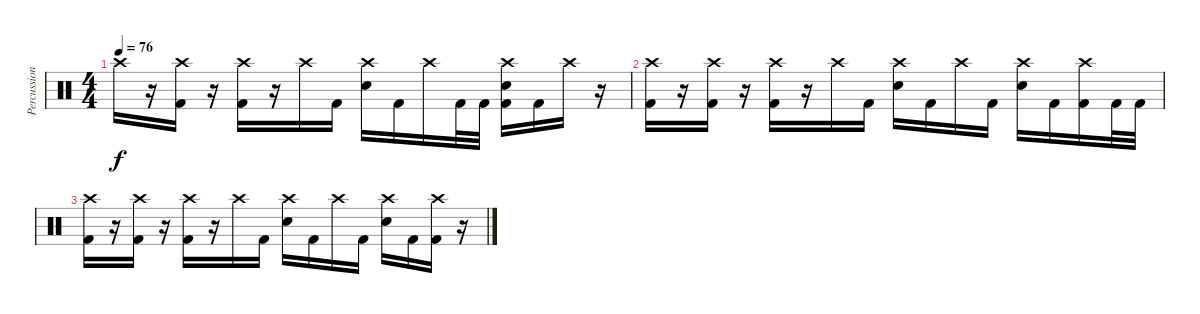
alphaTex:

\track ("Percussion" "Percussion") {instrument percussion}
\staff {score}
\articulation defaults
\ts (4 4)
\tempo 76
\clef neutral
\ks c "Crash high (hit)".16{dy f}
r.16 ("Crash high (hit)" "Kick (hit) 2").16 r.16 ("Crash high (hit)" "Kick (hit) 2").16 r.16 "Crash high (hit)".16 "Kick (hit) 2".16 ("Crash high (hit)" "Electric Snare (hit)").16 "Kick (hit) 2".16 "Crash high (hit)".16 "Kick (hit) 2".32 "Kick (hit) 2".32 ("Crash high (hit)" "Electric Snare (hit)" "Kick (hit) 2").16 "Kick (hit) 2".16 "Crash high (hit)".16 r.16 |
("Crash high (hit)" "Kick (hit) 2").16 r.16 ("Crash high (hit)" "Kick (hit) 2").16 r.16 ("Crash high (hit)" "Kick (hit) 2").16 r.16 "Crash high (hit)".16 "Kick (hit) 2".16 ("Crash high (hit)" "Electric Snare (hit)").16 "Kick (hit) 2".16 "Crash high (hit)".16 "Kick (hit) 2".16 ("Crash high (hit)" "Electric Snare (hit)").16 "Kick (hit) 2".16 ("Crash high (hit)" "Kick (hit) 2").16 "Kick (hit) 2".32 "Kick (hit) 2".32 |
("Crash high (hit)" "Kick (hit) 2").16 r.16 ("Crash high (hit)" "Kick (hit) 2").16 r.16 ("Crash high (hit)" "Kick (hit) 2").16 r.16 "Crash high (hit)".16 "Kick (hit) 2".16 ("Crash high (hit)" "Electric Snare (hit)").16 "Kick (hit) 2".16 "Crash high (hit)".16 "Kick (hit) 2".16 ("Crash high (hit)" "Electric Snare (hit)").16 "Kick (hit) 2".16 ("Crash high (hit)" "Kick (hit) 2").16 r.16
